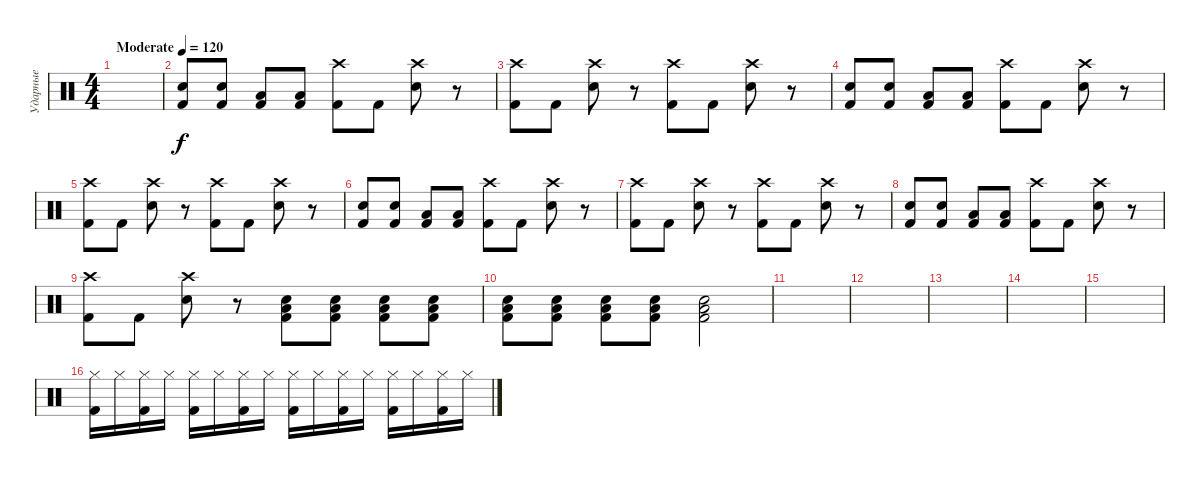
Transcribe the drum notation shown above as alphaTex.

\track ("Ударные" "Ударные") {instrument percussion}
\staff {score}
\articulation defaults
\ts (4 4)
\tempo (120 "Moderate")
\clef neutral
\ks c
|
("Electric Snare (hit)" "Kick (hit) 2").8 ("Electric Snare (hit)" "Kick (hit) 2").8 ("Low Floor Tom (hit)" "Kick (hit) 2").8 ("Low Floor Tom (hit)" "Kick (hit) 2").8 ("Crash high (hit)" "Kick (hit) 2").8 "Kick (hit) 2".8 ("Crash high (hit)" "Electric Snare (hit)").8 r.8 |
("Crash high (hit)" "Kick (hit) 2").8 "Kick (hit) 2".8 ("Crash high (hit)" "Electric Snare (hit)").8 r.8 ("Crash high (hit)" "Kick (hit) 2").8 "Kick (hit) 2".8 ("Crash high (hit)" "Electric Snare (hit)").8 r.8 |
("Electric Snare (hit)" "Kick (hit) 2").8 ("Electric Snare (hit)" "Kick (hit) 2").8 ("Low Floor Tom (hit)" "Kick (hit) 2").8 ("Low Floor Tom (hit)" "Kick (hit) 2").8 ("Crash high (hit)" "Kick (hit) 2").8 "Kick (hit) 2".8 ("Crash high (hit)" "Electric Snare (hit)").8 r.8 |
("Crash high (hit)" "Kick (hit) 2").8 "Kick (hit) 2".8 ("Crash high (hit)" "Electric Snare (hit)").8 r.8 ("Crash high (hit)" "Kick (hit) 2").8 "Kick (hit) 2".8 ("Crash high (hit)" "Electric Snare (hit)").8 r.8 |
("Electric Snare (hit)" "Kick (hit) 2").8 ("Electric Snare (hit)" "Kick (hit) 2").8 ("Low Floor Tom (hit)" "Kick (hit) 2").8 ("Low Floor Tom (hit)" "Kick (hit) 2").8 ("Crash high (hit)" "Kick (hit) 2").8 "Kick (hit) 2".8 ("Crash high (hit)" "Electric Snare (hit)").8 r.8 |
("Crash high (hit)" "Kick (hit) 2").8 "Kick (hit) 2".8 ("Crash high (hit)" "Electric Snare (hit)").8 r.8 ("Crash high (hit)" "Kick (hit) 2").8 "Kick (hit) 2".8 ("Crash high (hit)" "Electric Snare (hit)").8 r.8 |
("Electric Snare (hit)" "Kick (hit) 2").8 ("Electric Snare (hit)" "Kick (hit) 2").8 ("Low Floor Tom (hit)" "Kick (hit) 2").8 ("Low Floor Tom (hit)" "Kick (hit) 2").8 ("Crash high (hit)" "Kick (hit) 2").8 "Kick (hit) 2".8 ("Crash high (hit)" "Electric Snare (hit)").8 r.8 |
("Crash high (hit)" "Kick (hit) 2").8 "Kick (hit) 2".8 ("Crash high (hit)" "Electric Snare (hit)").8 r.8 ("Low Floor Tom (hit)" "Electric Snare (hit)" "Kick (hit) 2").8 ("Low Floor Tom (hit)" "Electric Snare (hit)" "Kick (hit) 2").8 ("Low Floor Tom (hit)" "Electric Snare (hit)" "Kick (hit) 2").8 ("Low Floor Tom (hit)" "Electric Snare (hit)" "Kick (hit) 2").8 |
("Low Floor Tom (hit)" "Electric Snare (hit)" "Kick (hit) 2").8 ("Low Floor Tom (hit)" "Electric Snare (hit)" "Kick (hit) 2").8 ("Low Floor Tom (hit)" "Electric Snare (hit)" "Kick (hit) 2").8 ("Low Floor Tom (hit)" "Electric Snare (hit)" "Kick (hit) 2").8 ("Low Floor Tom (hit)" "Electric Snare (hit)" "Kick (hit) 2").2 |
|
|
|
|
|
("Hi-Hat (closed)" "Kick (hit) 2").16 "Hi-Hat (closed)".16 ("Hi-Hat (closed)" "Kick (hit) 2").16 "Hi-Hat (closed)".16 ("Hi-Hat (closed)" "Kick (hit) 2").16 "Hi-Hat (closed)".16 ("Hi-Hat (closed)" "Kick (hit) 2").16 "Hi-Hat (closed)".16 ("Hi-Hat (closed)" "Kick (hit) 2").16 "Hi-Hat (closed)".16 ("Hi-Hat (closed)" "Kick (hit) 2").16 "Hi-Hat (closed)".16 ("Hi-Hat (closed)" "Kick (hit) 2").16 "Hi-Hat (closed)".16 ("Hi-Hat (closed)" "Kick (hit) 2").16 "Hi-Hat (closed)".16
